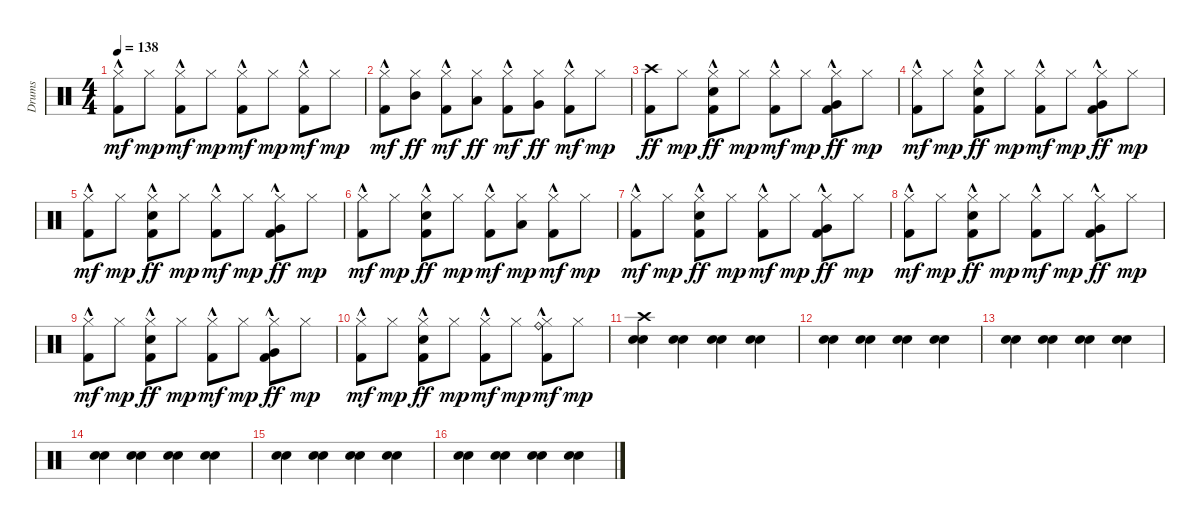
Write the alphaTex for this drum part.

\track ("Drums" "Drums") {instrument percussion}
\staff {score}
\articulation defaults
\ts (4 4)
\tempo 138
\clef neutral
\ks c
("Hi-Hat (closed)"{hac} "Kick (hit) 2").8{dy mf} "Hi-Hat (closed)".8{dy mp} ("Hi-Hat (closed)"{hac} "Kick (hit) 2").8{dy mf} "Hi-Hat (closed)".8{dy mp} ("Hi-Hat (closed)"{hac} "Kick (hit) 2").8{dy mf} "Hi-Hat (closed)".8{dy mp} ("Hi-Hat (closed)"{hac} "Kick (hit) 2").8{dy mf} "Hi-Hat (closed)".8{dy mp} |
("Hi-Hat (closed)"{hac} "Kick (hit) 2").8{dy mf} ("Hi-Hat (closed)" "Mid Tom (hit)").8{dy ff} ("Hi-Hat (closed)"{hac} "Kick (hit) 2").8{dy mf} ("Hi-Hat (closed)" "Low Tom (hit)").8{dy ff} ("Hi-Hat (closed)"{hac} "Kick (hit) 2").8{dy mf} ("Hi-Hat (closed)" "Very Low Tom (hit)").8{dy ff} ("Hi-Hat (closed)"{hac} "Kick (hit) 2").8{dy mf} "Hi-Hat (closed)".8{dy mp} |
("Crash high (hit)" "Kick (hit) 2").8{dy ff} "Hi-Hat (closed)".8{dy mp} ("Hi-Hat (closed)"{hac} "Hand Clap (hit)" "Kick (hit) 2").8{dy ff} "Hi-Hat (closed)".8{dy mp} ("Hi-Hat (closed)"{hac} "Kick (hit) 2").8{dy mf} "Hi-Hat (closed)".8{dy mp} ("Hi-Hat (closed)"{hac} "Kick (hit) 2" "Very Low Tom (hit)").8{dy ff} "Hi-Hat (closed)".8{dy mp} |
("Hi-Hat (closed)"{hac} "Kick (hit) 2").8{dy mf} "Hi-Hat (closed)".8{dy mp} ("Hi-Hat (closed)"{hac} "Hand Clap (hit)" "Kick (hit) 2").8{dy ff} "Hi-Hat (closed)".8{dy mp} ("Hi-Hat (closed)"{hac} "Kick (hit) 2").8{dy mf} "Hi-Hat (closed)".8{dy mp} ("Hi-Hat (closed)"{hac} "Kick (hit) 2" "Very Low Tom (hit)").8{dy ff} "Hi-Hat (closed)".8{dy mp} |
("Hi-Hat (closed)"{hac} "Kick (hit) 2").8{dy mf} "Hi-Hat (closed)".8{dy mp} ("Hi-Hat (closed)"{hac} "Hand Clap (hit)" "Kick (hit) 2").8{dy ff} "Hi-Hat (closed)".8{dy mp} ("Hi-Hat (closed)"{hac} "Kick (hit) 2").8{dy mf} "Hi-Hat (closed)".8{dy mp} ("Hi-Hat (closed)"{hac} "Kick (hit) 2" "Very Low Tom (hit)").8{dy ff} "Hi-Hat (closed)".8{dy mp} |
("Hi-Hat (closed)"{hac} "Kick (hit) 2").8{dy mf} "Hi-Hat (closed)".8{dy mp} ("Hi-Hat (closed)"{hac} "Hand Clap (hit)" "Kick (hit) 2").8{dy ff} "Hi-Hat (closed)".8{dy mp} ("Hi-Hat (closed)"{hac} "Kick (hit) 2").8{dy mf} ("Hi-Hat (closed)" "Low Tom (hit)").8{dy mp} ("Hi-Hat (closed)"{hac} "Kick (hit) 2").8{dy mf} "Hi-Hat (closed)".8{dy mp} |
("Hi-Hat (closed)"{hac} "Kick (hit) 2").8{dy mf} "Hi-Hat (closed)".8{dy mp} ("Hi-Hat (closed)"{hac} "Hand Clap (hit)" "Kick (hit) 2").8{dy ff} "Hi-Hat (closed)".8{dy mp} ("Hi-Hat (closed)"{hac} "Kick (hit) 2").8{dy mf} "Hi-Hat (closed)".8{dy mp} ("Hi-Hat (closed)"{hac} "Kick (hit) 2" "Very Low Tom (hit)").8{dy ff} "Hi-Hat (closed)".8{dy mp} |
("Hi-Hat (closed)"{hac} "Kick (hit) 2").8{dy mf} "Hi-Hat (closed)".8{dy mp} ("Hi-Hat (closed)"{hac} "Hand Clap (hit)" "Kick (hit) 2").8{dy ff} "Hi-Hat (closed)".8{dy mp} ("Hi-Hat (closed)"{hac} "Kick (hit) 2").8{dy mf} "Hi-Hat (closed)".8{dy mp} ("Hi-Hat (closed)"{hac} "Kick (hit) 2" "Very Low Tom (hit)").8{dy ff} "Hi-Hat (closed)".8{dy mp} |
("Hi-Hat (closed)"{hac} "Kick (hit) 2").8{dy mf} "Hi-Hat (closed)".8{dy mp} ("Hi-Hat (closed)"{hac} "Hand Clap (hit)" "Kick (hit) 2").8{dy ff} "Hi-Hat (closed)".8{dy mp} ("Hi-Hat (closed)"{hac} "Kick (hit) 2").8{dy mf} "Hi-Hat (closed)".8{dy mp} ("Hi-Hat (closed)"{hac} "Kick (hit) 2" "Very Low Tom (hit)").8{dy ff} "Hi-Hat (closed)".8{dy mp} |
("Hi-Hat (closed)"{hac} "Kick (hit) 2").8{dy mf} "Hi-Hat (closed)".8{dy mp} ("Hi-Hat (closed)"{hac} "Hand Clap (hit)" "Kick (hit) 2").8{dy ff} "Hi-Hat (closed)".8{dy mp} ("Hi-Hat (closed)"{hac} "Kick (hit) 2").8{dy mf} "Hi-Hat (closed)".8{dy mp} ("Hi-Hat (closed)"{hac} "Kick (hit) 2" "Ride (bell)").8{dy mf} "Hi-Hat (closed)".8{dy mp} |
("Snare (hit) 2" "Hand Clap (hit)" "Crash high (hit)").4 ("Snare (hit) 2" "Hand Clap (hit)").4 ("Snare (hit) 2" "Hand Clap (hit)").4 ("Snare (hit) 2" "Hand Clap (hit)").4 |
("Snare (hit) 2" "Hand Clap (hit)").4 ("Snare (hit) 2" "Hand Clap (hit)").4 ("Snare (hit) 2" "Hand Clap (hit)").4 ("Snare (hit) 2" "Hand Clap (hit)").4 |
("Snare (hit) 2" "Hand Clap (hit)").4 ("Snare (hit) 2" "Hand Clap (hit)").4 ("Snare (hit) 2" "Hand Clap (hit)").4 ("Snare (hit) 2" "Hand Clap (hit)").4 |
("Snare (hit) 2" "Hand Clap (hit)").4 ("Snare (hit) 2" "Hand Clap (hit)").4 ("Snare (hit) 2" "Hand Clap (hit)").4 ("Snare (hit) 2" "Hand Clap (hit)").4 |
("Snare (hit) 2" "Hand Clap (hit)").4 ("Snare (hit) 2" "Hand Clap (hit)").4 ("Snare (hit) 2" "Hand Clap (hit)").4 ("Snare (hit) 2" "Hand Clap (hit)").4 |
("Snare (hit) 2" "Hand Clap (hit)").4 ("Snare (hit) 2" "Hand Clap (hit)").4 ("Snare (hit) 2" "Hand Clap (hit)").4 ("Snare (hit) 2" "Hand Clap (hit)").4
